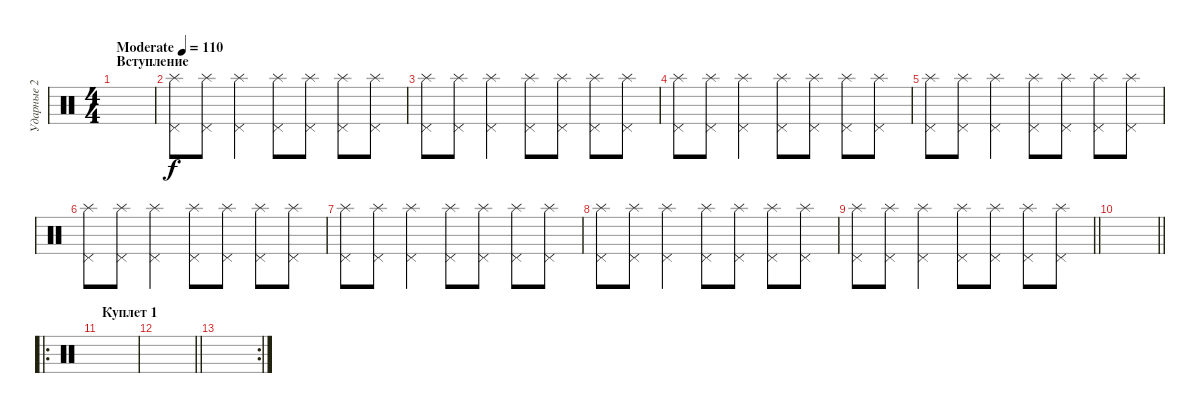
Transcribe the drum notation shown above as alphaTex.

\track ("Ударные 2" "Ударные 2") {instrument percussion}
\staff {score}
\articulation defaults
\ts (4 4)
\section ("" "Вступление")
\tempo (110 "Moderate")
\clef neutral
\ks c
|
("Pedal Hi-Hat (hit)" "Splash (hit)").8 ("Pedal Hi-Hat (hit)" "Splash (hit)").8 ("Pedal Hi-Hat (hit)" "Splash (hit)").4 ("Pedal Hi-Hat (hit)" "Splash (hit)").8 ("Pedal Hi-Hat (hit)" "Splash (hit)").8 ("Pedal Hi-Hat (hit)" "Splash (hit)").8 ("Pedal Hi-Hat (hit)" "Splash (hit)").8 |
("Pedal Hi-Hat (hit)" "Splash (hit)").8 ("Pedal Hi-Hat (hit)" "Splash (hit)").8 ("Pedal Hi-Hat (hit)" "Splash (hit)").4 ("Pedal Hi-Hat (hit)" "Splash (hit)").8 ("Pedal Hi-Hat (hit)" "Splash (hit)").8 ("Pedal Hi-Hat (hit)" "Splash (hit)").8 ("Pedal Hi-Hat (hit)" "Splash (hit)").8 |
("Pedal Hi-Hat (hit)" "Splash (hit)").8 ("Pedal Hi-Hat (hit)" "Splash (hit)").8 ("Pedal Hi-Hat (hit)" "Splash (hit)").4 ("Pedal Hi-Hat (hit)" "Splash (hit)").8 ("Pedal Hi-Hat (hit)" "Splash (hit)").8 ("Pedal Hi-Hat (hit)" "Splash (hit)").8 ("Pedal Hi-Hat (hit)" "Splash (hit)").8 |
("Pedal Hi-Hat (hit)" "Splash (hit)").8 ("Pedal Hi-Hat (hit)" "Splash (hit)").8 ("Pedal Hi-Hat (hit)" "Splash (hit)").4 ("Pedal Hi-Hat (hit)" "Splash (hit)").8 ("Pedal Hi-Hat (hit)" "Splash (hit)").8 ("Pedal Hi-Hat (hit)" "Splash (hit)").8 ("Pedal Hi-Hat (hit)" "Splash (hit)").8 |
("Pedal Hi-Hat (hit)" "Splash (hit)").8 ("Pedal Hi-Hat (hit)" "Splash (hit)").8 ("Pedal Hi-Hat (hit)" "Splash (hit)").4 ("Pedal Hi-Hat (hit)" "Splash (hit)").8 ("Pedal Hi-Hat (hit)" "Splash (hit)").8 ("Pedal Hi-Hat (hit)" "Splash (hit)").8 ("Pedal Hi-Hat (hit)" "Splash (hit)").8 |
("Pedal Hi-Hat (hit)" "Splash (hit)").8 ("Pedal Hi-Hat (hit)" "Splash (hit)").8 ("Pedal Hi-Hat (hit)" "Splash (hit)").4 ("Pedal Hi-Hat (hit)" "Splash (hit)").8 ("Pedal Hi-Hat (hit)" "Splash (hit)").8 ("Pedal Hi-Hat (hit)" "Splash (hit)").8 ("Pedal Hi-Hat (hit)" "Splash (hit)").8 |
("Pedal Hi-Hat (hit)" "Splash (hit)").8 ("Pedal Hi-Hat (hit)" "Splash (hit)").8 ("Pedal Hi-Hat (hit)" "Splash (hit)").4 ("Pedal Hi-Hat (hit)" "Splash (hit)").8 ("Pedal Hi-Hat (hit)" "Splash (hit)").8 ("Pedal Hi-Hat (hit)" "Splash (hit)").8 ("Pedal Hi-Hat (hit)" "Splash (hit)").8 |
\barLineRight lightlight
("Pedal Hi-Hat (hit)" "Splash (hit)").8 ("Pedal Hi-Hat (hit)" "Splash (hit)").8 ("Pedal Hi-Hat (hit)" "Splash (hit)").4 ("Pedal Hi-Hat (hit)" "Splash (hit)").8 ("Pedal Hi-Hat (hit)" "Splash (hit)").8 ("Pedal Hi-Hat (hit)" "Splash (hit)").8 ("Pedal Hi-Hat (hit)" "Splash (hit)").8 |
\barLineRight lightlight
|
\ro
\section ("" "Куплет 1")
|
\barLineRight lightlight
|
\rc 2
